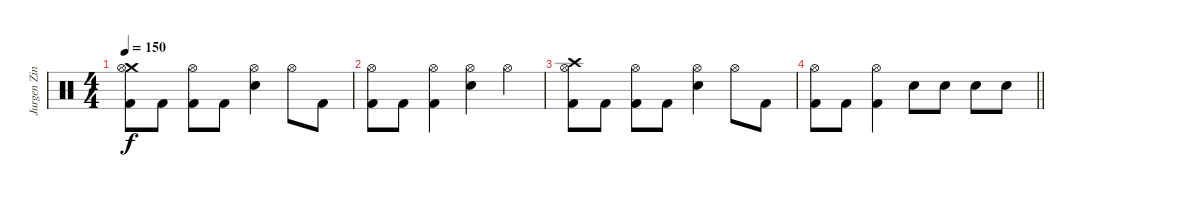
\track ("Jurgen Zing" "Jurgen Zin") {instrument percussion}
\staff {score}
\articulation defaults
\ts (4 4)
\tempo 150
\clef neutral
\ks c
("Crash medium (hit)" "Hi-Hat (open)" "Kick (hit) 2").8{dy f} "Kick (hit) 2".8 ("Hi-Hat (open)" "Kick (hit) 2").8 "Kick (hit) 2".8 ("Hi-Hat (open)" "Electric Snare (hit)").4 "Hi-Hat (open)".8 "Kick (hit) 2".8 |
("Hi-Hat (open)" "Kick (hit) 2").8 "Kick (hit) 2".8 ("Hi-Hat (open)" "Kick (hit) 2").4 ("Hi-Hat (open)" "Electric Snare (hit)").4 "Hi-Hat (open)".4 |
("Crash high (hit)" "Hi-Hat (open)" "Kick (hit) 2").8 "Kick (hit) 2".8 ("Hi-Hat (open)" "Kick (hit) 2").8 "Kick (hit) 2".8 ("Hi-Hat (open)" "Electric Snare (hit)").4 "Hi-Hat (open)".8 "Kick (hit) 2".8 |
\barLineRight lightlight
("Hi-Hat (open)" "Kick (hit) 2").8 "Kick (hit) 2".8 ("Hi-Hat (open)" "Kick (hit) 2").4 "Electric Snare (hit)".8 "Electric Snare (hit)".8 "Electric Snare (hit)".8 "Electric Snare (hit)".8
